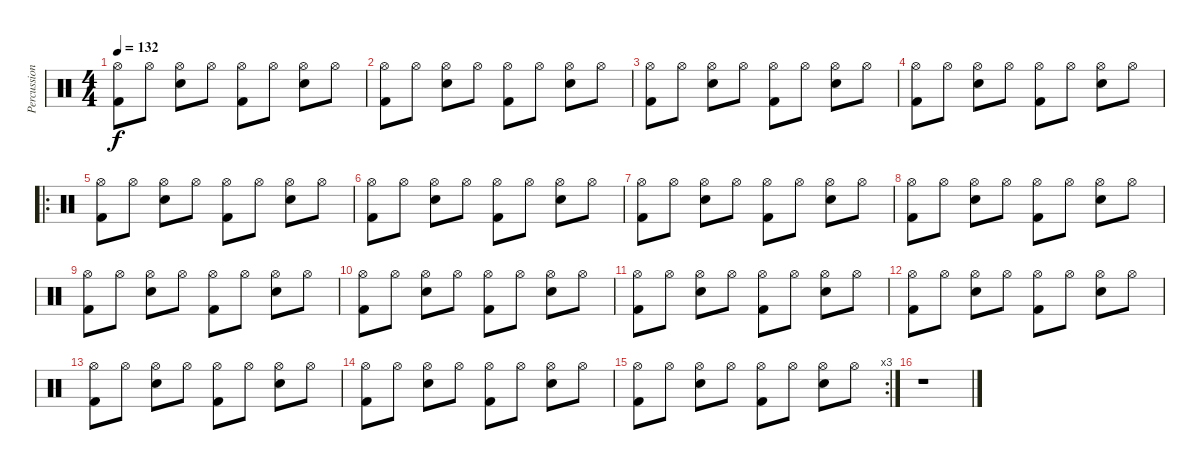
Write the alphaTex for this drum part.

\track ("Percussion" "Percussion") {instrument percussion}
\staff {score}
\articulation defaults
\ts (4 4)
\tempo 132
\clef neutral
\ks c
("Hi-Hat (open)" "Kick (hit) 2").8{dy f} "Hi-Hat (open)".8 ("Hi-Hat (open)" "Snare (hit) 2").8 "Hi-Hat (open)".8 ("Hi-Hat (open)" "Kick (hit) 2").8 "Hi-Hat (open)".8 ("Hi-Hat (open)" "Snare (hit) 2").8 "Hi-Hat (open)".8 |
("Hi-Hat (open)" "Kick (hit) 2").8 "Hi-Hat (open)".8 ("Hi-Hat (open)" "Snare (hit) 2").8 "Hi-Hat (open)".8 ("Hi-Hat (open)" "Kick (hit) 2").8 "Hi-Hat (open)".8 ("Hi-Hat (open)" "Snare (hit) 2").8 "Hi-Hat (open)".8 |
("Hi-Hat (open)" "Kick (hit) 2").8 "Hi-Hat (open)".8 ("Hi-Hat (open)" "Snare (hit) 2").8 "Hi-Hat (open)".8 ("Hi-Hat (open)" "Kick (hit) 2").8 "Hi-Hat (open)".8 ("Hi-Hat (open)" "Snare (hit) 2").8 "Hi-Hat (open)".8 |
("Hi-Hat (open)" "Kick (hit) 2").8 "Hi-Hat (open)".8 ("Hi-Hat (open)" "Snare (hit) 2").8 "Hi-Hat (open)".8 ("Hi-Hat (open)" "Kick (hit) 2").8 "Hi-Hat (open)".8 ("Hi-Hat (open)" "Snare (hit) 2").8 "Hi-Hat (open)".8 |
\ro
("Hi-Hat (open)" "Kick (hit) 2").8 "Hi-Hat (open)".8 ("Hi-Hat (open)" "Snare (hit) 2").8 "Hi-Hat (open)".8 ("Hi-Hat (open)" "Kick (hit) 2").8 "Hi-Hat (open)".8 ("Hi-Hat (open)" "Snare (hit) 2").8 "Hi-Hat (open)".8 |
("Hi-Hat (open)" "Kick (hit) 2").8 "Hi-Hat (open)".8 ("Hi-Hat (open)" "Snare (hit) 2").8 "Hi-Hat (open)".8 ("Hi-Hat (open)" "Kick (hit) 2").8 "Hi-Hat (open)".8 ("Hi-Hat (open)" "Snare (hit) 2").8 "Hi-Hat (open)".8 |
("Hi-Hat (open)" "Kick (hit) 2").8 "Hi-Hat (open)".8 ("Hi-Hat (open)" "Snare (hit) 2").8 "Hi-Hat (open)".8 ("Hi-Hat (open)" "Kick (hit) 2").8 "Hi-Hat (open)".8 ("Hi-Hat (open)" "Snare (hit) 2").8 "Hi-Hat (open)".8 |
("Hi-Hat (open)" "Kick (hit) 2").8 "Hi-Hat (open)".8 ("Hi-Hat (open)" "Snare (hit) 2").8 "Hi-Hat (open)".8 ("Hi-Hat (open)" "Kick (hit) 2").8 "Hi-Hat (open)".8 ("Hi-Hat (open)" "Snare (hit) 2").8 "Hi-Hat (open)".8 |
("Hi-Hat (open)" "Kick (hit) 2").8 "Hi-Hat (open)".8 ("Hi-Hat (open)" "Snare (hit) 2").8 "Hi-Hat (open)".8 ("Hi-Hat (open)" "Kick (hit) 2").8 "Hi-Hat (open)".8 ("Hi-Hat (open)" "Snare (hit) 2").8 "Hi-Hat (open)".8 |
("Hi-Hat (open)" "Kick (hit) 2").8 "Hi-Hat (open)".8 ("Hi-Hat (open)" "Snare (hit) 2").8 "Hi-Hat (open)".8 ("Hi-Hat (open)" "Kick (hit) 2").8 "Hi-Hat (open)".8 ("Hi-Hat (open)" "Snare (hit) 2").8 "Hi-Hat (open)".8 |
("Hi-Hat (open)" "Kick (hit) 2").8 "Hi-Hat (open)".8 ("Hi-Hat (open)" "Snare (hit) 2").8 "Hi-Hat (open)".8 ("Hi-Hat (open)" "Kick (hit) 2").8 "Hi-Hat (open)".8 ("Hi-Hat (open)" "Snare (hit) 2").8 "Hi-Hat (open)".8 |
("Hi-Hat (open)" "Kick (hit) 2").8 "Hi-Hat (open)".8 ("Hi-Hat (open)" "Snare (hit) 2").8 "Hi-Hat (open)".8 ("Hi-Hat (open)" "Kick (hit) 2").8 "Hi-Hat (open)".8 ("Hi-Hat (open)" "Snare (hit) 2").8 "Hi-Hat (open)".8 |
("Hi-Hat (open)" "Kick (hit) 2").8 "Hi-Hat (open)".8 ("Hi-Hat (open)" "Snare (hit) 2").8 "Hi-Hat (open)".8 ("Hi-Hat (open)" "Kick (hit) 2").8 "Hi-Hat (open)".8 ("Hi-Hat (open)" "Snare (hit) 2").8 "Hi-Hat (open)".8 |
("Hi-Hat (open)" "Kick (hit) 2").8 "Hi-Hat (open)".8 ("Hi-Hat (open)" "Snare (hit) 2").8 "Hi-Hat (open)".8 ("Hi-Hat (open)" "Kick (hit) 2").8 "Hi-Hat (open)".8 ("Hi-Hat (open)" "Snare (hit) 2").8 "Hi-Hat (open)".8 |
\rc 3
("Hi-Hat (open)" "Kick (hit) 2").8 "Hi-Hat (open)".8 ("Hi-Hat (open)" "Snare (hit) 2").8 "Hi-Hat (open)".8 ("Hi-Hat (open)" "Kick (hit) 2").8 "Hi-Hat (open)".8 ("Hi-Hat (open)" "Snare (hit) 2").8 "Hi-Hat (open)".8 |
r.1
